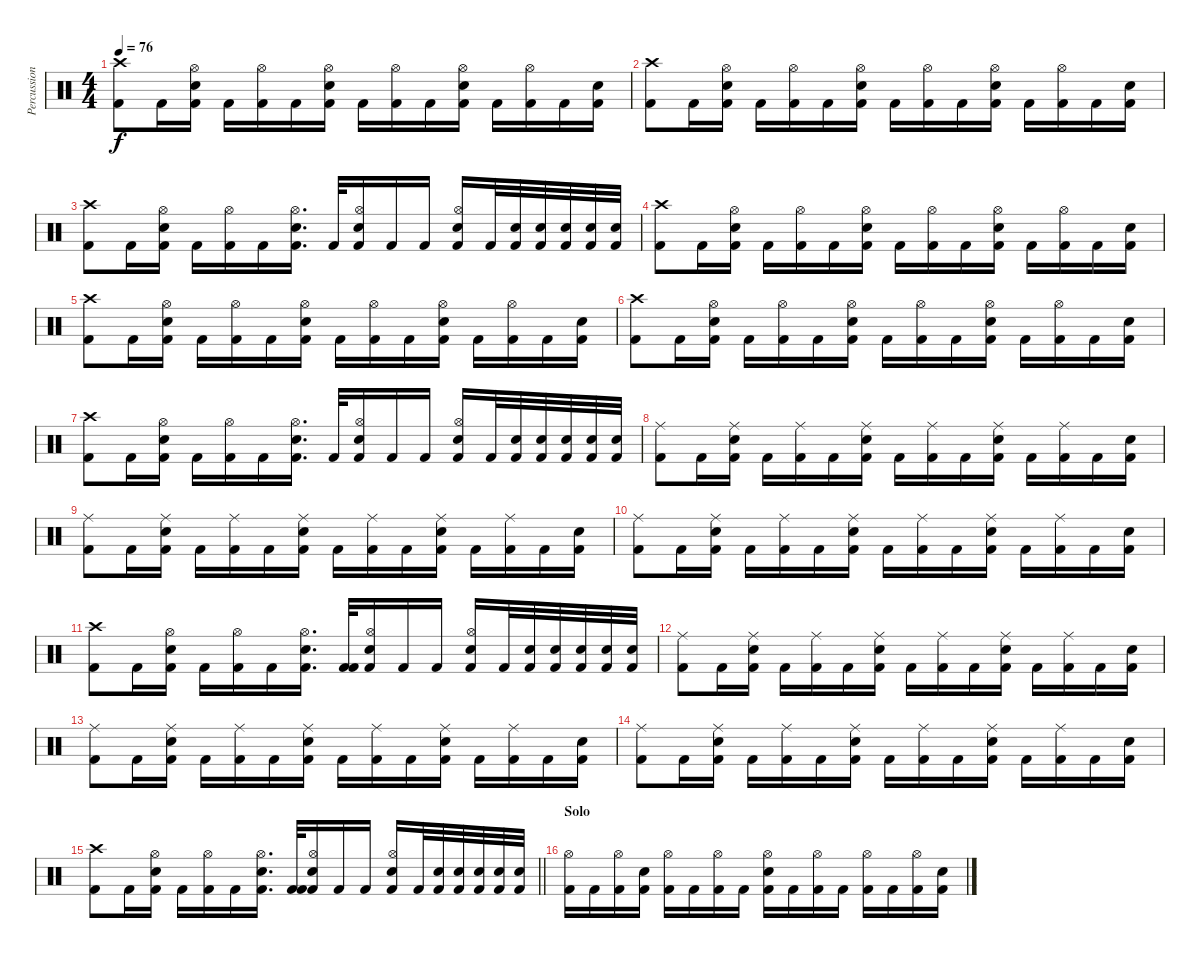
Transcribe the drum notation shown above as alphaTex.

\track ("Percussion" "Percussion") {instrument percussion}
\staff {score}
\articulation defaults
\ts (4 4)
\tempo 76
\clef neutral
\ks c
("Crash high (hit)" "Kick (hit) 2").8{dy f} "Kick (hit) 2".16 ("Hi-Hat (open)" "Snare (hit) 2" "Kick (hit) 2").16 "Kick (hit) 2".16 ("Hi-Hat (open)" "Kick (hit) 2").16 "Kick (hit) 2".16 ("Hi-Hat (open)" "Snare (hit) 2" "Kick (hit) 2").16 "Kick (hit) 2".16 ("Hi-Hat (open)" "Kick (hit) 2").16 "Kick (hit) 2".16 ("Hi-Hat (open)" "Snare (hit) 2" "Kick (hit) 2").16 "Kick (hit) 2".16 ("Hi-Hat (open)" "Kick (hit) 2").16 "Kick (hit) 2".16 ("Snare (hit) 2" "Kick (hit) 2").16 |
("Crash high (hit)" "Kick (hit) 2").8 "Kick (hit) 2".16 ("Hi-Hat (open)" "Snare (hit) 2" "Kick (hit) 2").16 "Kick (hit) 2".16 ("Hi-Hat (open)" "Kick (hit) 2").16 "Kick (hit) 2".16 ("Hi-Hat (open)" "Snare (hit) 2" "Kick (hit) 2").16 "Kick (hit) 2".16 ("Hi-Hat (open)" "Kick (hit) 2").16 "Kick (hit) 2".16 ("Hi-Hat (open)" "Snare (hit) 2" "Kick (hit) 2").16 "Kick (hit) 2".16 ("Hi-Hat (open)" "Kick (hit) 2").16 "Kick (hit) 2".16 ("Snare (hit) 2" "Kick (hit) 2").16 |
("Crash high (hit)" "Kick (hit) 2").8 "Kick (hit) 2".16 ("Hi-Hat (open)" "Snare (hit) 2" "Kick (hit) 2").16 "Kick (hit) 2".16 ("Hi-Hat (open)" "Kick (hit) 2").16 "Kick (hit) 2".16 ("Hi-Hat (open)" "Snare (hit) 2" "Kick (hit) 2").16{d} "Kick (hit) 2".32 ("Hi-Hat (open)" "Snare (hit) 2" "Kick (hit) 2").16 "Kick (hit) 2".16 "Kick (hit) 2".16 ("Hi-Hat (open)" "Snare (hit) 2" "Kick (hit) 2").16 "Kick (hit) 2".32 ("Snare (hit) 2" "Kick (hit) 2").32 ("Snare (hit) 2" "Kick (hit) 2").32 ("Snare (hit) 2" "Kick (hit) 2").32 ("Snare (hit) 2" "Kick (hit) 2").32 ("Snare (hit) 2" "Kick (hit) 2").32 |
("Crash high (hit)" "Kick (hit) 2").8 "Kick (hit) 2".16 ("Hi-Hat (open)" "Snare (hit) 2" "Kick (hit) 2").16 "Kick (hit) 2".16 ("Hi-Hat (open)" "Kick (hit) 2").16 "Kick (hit) 2".16 ("Hi-Hat (open)" "Snare (hit) 2" "Kick (hit) 2").16 "Kick (hit) 2".16 ("Hi-Hat (open)" "Kick (hit) 2").16 "Kick (hit) 2".16 ("Hi-Hat (open)" "Snare (hit) 2" "Kick (hit) 2").16 "Kick (hit) 2".16 ("Hi-Hat (open)" "Kick (hit) 2").16 "Kick (hit) 2".16 ("Snare (hit) 2" "Kick (hit) 2").16 |
("Crash high (hit)" "Kick (hit) 2").8 "Kick (hit) 2".16 ("Hi-Hat (open)" "Snare (hit) 2" "Kick (hit) 2").16 "Kick (hit) 2".16 ("Hi-Hat (open)" "Kick (hit) 2").16 "Kick (hit) 2".16 ("Hi-Hat (open)" "Snare (hit) 2" "Kick (hit) 2").16 "Kick (hit) 2".16 ("Hi-Hat (open)" "Kick (hit) 2").16 "Kick (hit) 2".16 ("Hi-Hat (open)" "Snare (hit) 2" "Kick (hit) 2").16 "Kick (hit) 2".16 ("Hi-Hat (open)" "Kick (hit) 2").16 "Kick (hit) 2".16 ("Snare (hit) 2" "Kick (hit) 2").16 |
("Crash high (hit)" "Kick (hit) 2").8 "Kick (hit) 2".16 ("Hi-Hat (open)" "Snare (hit) 2" "Kick (hit) 2").16 "Kick (hit) 2".16 ("Hi-Hat (open)" "Kick (hit) 2").16 "Kick (hit) 2".16 ("Hi-Hat (open)" "Snare (hit) 2" "Kick (hit) 2").16 "Kick (hit) 2".16 ("Hi-Hat (open)" "Kick (hit) 2").16 "Kick (hit) 2".16 ("Hi-Hat (open)" "Snare (hit) 2" "Kick (hit) 2").16 "Kick (hit) 2".16 ("Hi-Hat (open)" "Kick (hit) 2").16 "Kick (hit) 2".16 ("Snare (hit) 2" "Kick (hit) 2").16 |
("Crash high (hit)" "Kick (hit) 2").8 "Kick (hit) 2".16 ("Hi-Hat (open)" "Snare (hit) 2" "Kick (hit) 2").16 "Kick (hit) 2".16 ("Hi-Hat (open)" "Kick (hit) 2").16 "Kick (hit) 2".16 ("Hi-Hat (open)" "Snare (hit) 2" "Kick (hit) 2").16{d} "Kick (hit) 2".32 ("Hi-Hat (open)" "Snare (hit) 2" "Kick (hit) 2").16 "Kick (hit) 2".16 "Kick (hit) 2".16 ("Hi-Hat (open)" "Snare (hit) 2" "Kick (hit) 2").16 "Kick (hit) 2".32 ("Snare (hit) 2" "Kick (hit) 2").32 ("Snare (hit) 2" "Kick (hit) 2").32 ("Snare (hit) 2" "Kick (hit) 2").32 ("Snare (hit) 2" "Kick (hit) 2").32 ("Snare (hit) 2" "Kick (hit) 2").32 |
("Ride (middle)" "Kick (hit) 2").8 "Kick (hit) 2".16 ("Ride (middle)" "Snare (hit) 2" "Kick (hit) 2").16 "Kick (hit) 2".16 ("Ride (middle)" "Kick (hit) 2").16 "Kick (hit) 2".16 ("Ride (middle)" "Snare (hit) 2" "Kick (hit) 2").16 "Kick (hit) 2".16 ("Ride (middle)" "Kick (hit) 2").16 "Kick (hit) 2".16 ("Ride (middle)" "Snare (hit) 2" "Kick (hit) 2").16 "Kick (hit) 2".16 ("Ride (middle)" "Kick (hit) 2").16 "Kick (hit) 2".16 ("Snare (hit) 2" "Kick (hit) 2").16 |
("Ride (middle)" "Kick (hit) 2").8 "Kick (hit) 2".16 ("Ride (middle)" "Snare (hit) 2" "Kick (hit) 2").16 "Kick (hit) 2".16 ("Ride (middle)" "Kick (hit) 2").16 "Kick (hit) 2".16 ("Ride (middle)" "Snare (hit) 2" "Kick (hit) 2").16 "Kick (hit) 2".16 ("Ride (middle)" "Kick (hit) 2").16 "Kick (hit) 2".16 ("Ride (middle)" "Snare (hit) 2" "Kick (hit) 2").16 "Kick (hit) 2".16 ("Ride (middle)" "Kick (hit) 2").16 "Kick (hit) 2".16 ("Snare (hit) 2" "Kick (hit) 2").16 |
("Ride (middle)" "Kick (hit) 2").8 "Kick (hit) 2".16 ("Ride (middle)" "Snare (hit) 2" "Kick (hit) 2").16 "Kick (hit) 2".16 ("Ride (middle)" "Kick (hit) 2").16 "Kick (hit) 2".16 ("Ride (middle)" "Snare (hit) 2" "Kick (hit) 2").16 "Kick (hit) 2".16 ("Ride (middle)" "Kick (hit) 2").16 "Kick (hit) 2".16 ("Ride (middle)" "Snare (hit) 2" "Kick (hit) 2").16 "Kick (hit) 2".16 ("Ride (middle)" "Kick (hit) 2").16 "Kick (hit) 2".16 ("Snare (hit) 2" "Kick (hit) 2").16 |
("Crash high (hit)" "Kick (hit) 2").8 "Kick (hit) 2".16 ("Hi-Hat (open)" "Snare (hit) 2" "Kick (hit) 2").16 "Kick (hit) 2".16 ("Hi-Hat (open)" "Kick (hit) 2").16 "Kick (hit) 2".16 ("Hi-Hat (open)" "Snare (hit) 2" "Kick (hit) 2").16{d} ("Kick (hit) 2" "Kick (hit) 2").32 ("Hi-Hat (open)" "Snare (hit) 2" "Kick (hit) 2").16 "Kick (hit) 2".16 "Kick (hit) 2".16 ("Hi-Hat (open)" "Snare (hit) 2" "Kick (hit) 2").16 "Kick (hit) 2".32 ("Snare (hit) 2" "Kick (hit) 2").32 ("Snare (hit) 2" "Kick (hit) 2").32 ("Snare (hit) 2" "Kick (hit) 2").32 ("Snare (hit) 2" "Kick (hit) 2").32 ("Snare (hit) 2" "Kick (hit) 2").32 |
("Ride (middle)" "Kick (hit) 2").8 "Kick (hit) 2".16 ("Ride (middle)" "Snare (hit) 2" "Kick (hit) 2").16 "Kick (hit) 2".16 ("Ride (middle)" "Kick (hit) 2").16 "Kick (hit) 2".16 ("Ride (middle)" "Snare (hit) 2" "Kick (hit) 2").16 "Kick (hit) 2".16 ("Ride (middle)" "Kick (hit) 2").16 "Kick (hit) 2".16 ("Ride (middle)" "Snare (hit) 2" "Kick (hit) 2").16 "Kick (hit) 2".16 ("Ride (middle)" "Kick (hit) 2").16 "Kick (hit) 2".16 ("Snare (hit) 2" "Kick (hit) 2").16 |
("Ride (middle)" "Kick (hit) 2").8 "Kick (hit) 2".16 ("Ride (middle)" "Snare (hit) 2" "Kick (hit) 2").16 "Kick (hit) 2".16 ("Ride (middle)" "Kick (hit) 2").16 "Kick (hit) 2".16 ("Ride (middle)" "Snare (hit) 2" "Kick (hit) 2").16 "Kick (hit) 2".16 ("Ride (middle)" "Kick (hit) 2").16 "Kick (hit) 2".16 ("Ride (middle)" "Snare (hit) 2" "Kick (hit) 2").16 "Kick (hit) 2".16 ("Ride (middle)" "Kick (hit) 2").16 "Kick (hit) 2".16 ("Snare (hit) 2" "Kick (hit) 2").16 |
("Ride (middle)" "Kick (hit) 2").8 "Kick (hit) 2".16 ("Ride (middle)" "Snare (hit) 2" "Kick (hit) 2").16 "Kick (hit) 2".16 ("Ride (middle)" "Kick (hit) 2").16 "Kick (hit) 2".16 ("Ride (middle)" "Snare (hit) 2" "Kick (hit) 2").16 "Kick (hit) 2".16 ("Ride (middle)" "Kick (hit) 2").16 "Kick (hit) 2".16 ("Ride (middle)" "Snare (hit) 2" "Kick (hit) 2").16 "Kick (hit) 2".16 ("Ride (middle)" "Kick (hit) 2").16 "Kick (hit) 2".16 ("Snare (hit) 2" "Kick (hit) 2").16 |
\barLineRight lightlight
("Crash high (hit)" "Kick (hit) 2").8 "Kick (hit) 2".16 ("Hi-Hat (open)" "Snare (hit) 2" "Kick (hit) 2").16 "Kick (hit) 2".16 ("Hi-Hat (open)" "Kick (hit) 2").16 "Kick (hit) 2".16 ("Hi-Hat (open)" "Snare (hit) 2" "Kick (hit) 2").16{d} ("Kick (hit) 2" "Kick (hit) 2").32 ("Hi-Hat (open)" "Snare (hit) 2" "Kick (hit) 2").16 "Kick (hit) 2".16 "Kick (hit) 2".16 ("Hi-Hat (open)" "Snare (hit) 2" "Kick (hit) 2").16 "Kick (hit) 2".32 ("Snare (hit) 2" "Kick (hit) 2").32 ("Snare (hit) 2" "Kick (hit) 2").32 ("Snare (hit) 2" "Kick (hit) 2").32 ("Snare (hit) 2" "Kick (hit) 2").32 ("Snare (hit) 2" "Kick (hit) 2").32 |
\section ("" "Solo")
("Hi-Hat (open)" "Kick (hit) 2").16 "Kick (hit) 2".16 ("Hi-Hat (open)" "Kick (hit) 2").16 ("Snare (hit) 2" "Kick (hit) 2").16 ("Hi-Hat (open)" "Kick (hit) 2").16 "Kick (hit) 2".16 ("Hi-Hat (open)" "Kick (hit) 2").16 "Kick (hit) 2".16 ("Hi-Hat (open)" "Kick (hit) 2" "Snare (hit) 2").16 "Kick (hit) 2".16 ("Hi-Hat (open)" "Kick (hit) 2").16 "Kick (hit) 2".16 ("Hi-Hat (open)" "Kick (hit) 2").16 "Kick (hit) 2".16 ("Hi-Hat (open)" "Kick (hit) 2").16 ("Kick (hit) 2" "Snare (hit) 2").16
